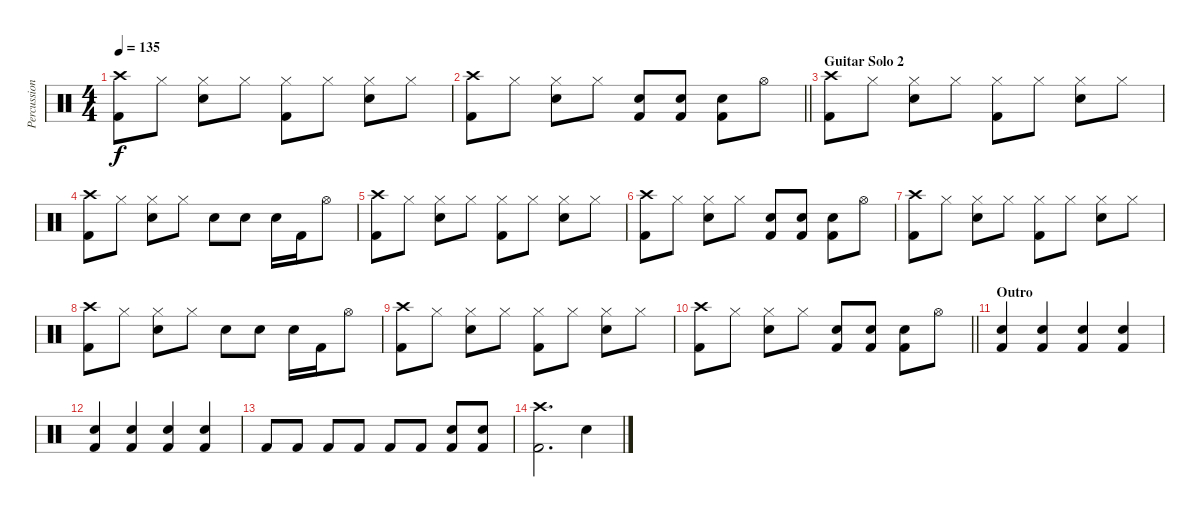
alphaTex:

\track ("Percussion" "Percussion") {instrument percussion}
\staff {score}
\articulation defaults
\ts (4 4)
\tempo 135
\clef neutral
\ks c
("Crash high (hit)" "Kick (hit) 2").8{dy f} "Hi-Hat (closed)".8 ("Hi-Hat (closed)" "Electric Snare (hit)").8 "Hi-Hat (closed)".8 ("Hi-Hat (closed)" "Kick (hit) 2").8 "Hi-Hat (closed)".8 ("Hi-Hat (closed)" "Electric Snare (hit)").8 "Hi-Hat (closed)".8 |
\barLineRight lightlight
("Crash high (hit)" "Kick (hit) 2").8 "Hi-Hat (closed)".8 ("Hi-Hat (closed)" "Electric Snare (hit)").8 "Hi-Hat (closed)".8 ("Electric Snare (hit)" "Kick (hit) 2").8 ("Electric Snare (hit)" "Kick (hit) 2").8 ("Electric Snare (hit)" "Kick (hit) 2").8 "Hi-Hat (open)".8 |
\section ("" "Guitar Solo 2")
("Crash high (hit)" "Kick (hit) 2").8 "Hi-Hat (closed)".8 ("Hi-Hat (closed)" "Electric Snare (hit)").8 "Hi-Hat (closed)".8 ("Hi-Hat (closed)" "Kick (hit) 2").8 "Hi-Hat (closed)".8 ("Hi-Hat (closed)" "Electric Snare (hit)").8 "Hi-Hat (closed)".8 |
("Crash high (hit)" "Kick (hit) 2").8 "Hi-Hat (closed)".8 ("Hi-Hat (closed)" "Electric Snare (hit)").8 "Hi-Hat (closed)".8 "Electric Snare (hit)".8 "Electric Snare (hit)".8 "Electric Snare (hit)".16 "Kick (hit) 2".16 "Hi-Hat (open)".8 |
("Crash high (hit)" "Kick (hit) 2").8 "Hi-Hat (closed)".8 ("Hi-Hat (closed)" "Electric Snare (hit)").8 "Hi-Hat (closed)".8 ("Hi-Hat (closed)" "Kick (hit) 2").8 "Hi-Hat (closed)".8 ("Hi-Hat (closed)" "Electric Snare (hit)").8 "Hi-Hat (closed)".8 |
("Crash high (hit)" "Kick (hit) 2").8 "Hi-Hat (closed)".8 ("Hi-Hat (closed)" "Electric Snare (hit)").8 "Hi-Hat (closed)".8 ("Electric Snare (hit)" "Kick (hit) 2").8 ("Electric Snare (hit)" "Kick (hit) 2").8 ("Electric Snare (hit)" "Kick (hit) 2").8 "Hi-Hat (open)".8 |
("Crash high (hit)" "Kick (hit) 2").8 "Hi-Hat (closed)".8 ("Hi-Hat (closed)" "Electric Snare (hit)").8 "Hi-Hat (closed)".8 ("Hi-Hat (closed)" "Kick (hit) 2").8 "Hi-Hat (closed)".8 ("Hi-Hat (closed)" "Electric Snare (hit)").8 "Hi-Hat (closed)".8 |
("Crash high (hit)" "Kick (hit) 2").8 "Hi-Hat (closed)".8 ("Hi-Hat (closed)" "Electric Snare (hit)").8 "Hi-Hat (closed)".8 "Electric Snare (hit)".8 "Electric Snare (hit)".8 "Electric Snare (hit)".16 "Kick (hit) 2".16 "Hi-Hat (open)".8 |
("Crash high (hit)" "Kick (hit) 2").8 "Hi-Hat (closed)".8 ("Hi-Hat (closed)" "Electric Snare (hit)").8 "Hi-Hat (closed)".8 ("Hi-Hat (closed)" "Kick (hit) 2").8 "Hi-Hat (closed)".8 ("Hi-Hat (closed)" "Electric Snare (hit)").8 "Hi-Hat (closed)".8 |
\barLineRight lightlight
("Crash high (hit)" "Kick (hit) 2").8 "Hi-Hat (closed)".8 ("Hi-Hat (closed)" "Electric Snare (hit)").8 "Hi-Hat (closed)".8 ("Electric Snare (hit)" "Kick (hit) 2").8 ("Electric Snare (hit)" "Kick (hit) 2").8 ("Electric Snare (hit)" "Kick (hit) 2").8 "Hi-Hat (open)".8 |
\section ("" "Outro")
("Electric Snare (hit)" "Kick (hit) 2").4 ("Electric Snare (hit)" "Kick (hit) 2").4 ("Electric Snare (hit)" "Kick (hit) 2").4 ("Electric Snare (hit)" "Kick (hit) 2").4 |
("Electric Snare (hit)" "Kick (hit) 2").4 ("Electric Snare (hit)" "Kick (hit) 2").4 ("Electric Snare (hit)" "Kick (hit) 2").4 ("Electric Snare (hit)" "Kick (hit) 2").4 |
"Kick (hit) 2".8 "Kick (hit) 2".8 "Kick (hit) 2".8 "Kick (hit) 2".8 "Kick (hit) 2".8 "Kick (hit) 2".8 ("Electric Snare (hit)" "Kick (hit) 2").8 ("Electric Snare (hit)" "Kick (hit) 2").8 |
("Crash high (hit)" "Kick (hit) 2").2{d} "Electric Snare (hit)".4
